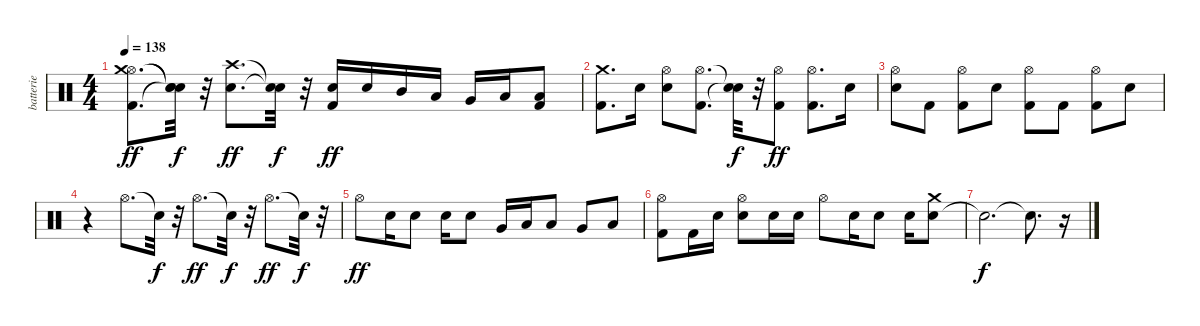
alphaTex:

\track ("batterie" "batterie") {instrument percussion}
\staff {score}
\articulation defaults
\ts (4 4)
\tempo 138
\clef neutral
\ks c
("Kick (hit) 2" "Hi-Hat (open)" "Crash medium (hit)").8{d dy ff} ("Snare (hit)"{t} "Snare (hit)"{t} "Snare (hit)"{t}).32{dy f} r.32 ("Electric Snare (hit)" "Crash high (hit)").8{d dy ff} ("Snare (hit)"{t} "Snare (hit)"{t}).32{dy f} r.32 ("Kick (hit) 2" "Electric Snare (hit)").16{dy ff} "Electric Snare (hit)".16 "Mid Tom (hit)".16 "Low Tom (hit)".16 "Very Low Tom (hit)".16 "Low Floor Tom (hit)".16 ("Kick (hit) 2" "Low Floor Tom (hit)").8 |
("Kick (hit) 2" "Crash medium (hit)").8{d} "Electric Snare (hit)".16 ("Electric Snare (hit)" "Hi-Hat (open)").8 ("Kick (hit) 2" "Hi-Hat (open)").8{d} ("Snare (hit)"{t} "Snare (hit)"{t}).32{dy f} r.32 ("Kick (hit) 2" "Hi-Hat (open)").8{dy ff} ("Kick (hit) 2" "Hi-Hat (open)").8{d} "Electric Snare (hit)".16 |
("Electric Snare (hit)" "Hi-Hat (open)").8 "Kick (hit) 2".8 ("Kick (hit) 2" "Hi-Hat (open)").8 "Electric Snare (hit)".8 ("Kick (hit) 2" "Hi-Hat (open)").8 "Kick (hit) 2".8 ("Kick (hit) 2" "Hi-Hat (open)").8 "Electric Snare (hit)".8 |
r.4 "Hi-Hat (open)".8{d} "Snare (hit)"{t}.32{dy f} r.32 "Hi-Hat (open)".8{d dy ff} "Snare (hit)"{t}.32{dy f} r.32 "Hi-Hat (open)".8{d dy ff} "Snare (hit)"{t}.32{dy f} r.32 |
"Hi-Hat (open)".8{dy ff} "Electric Snare (hit)".16 "Electric Snare (hit)".8 "Electric Snare (hit)".16 "Electric Snare (hit)".8 "Very Low Tom (hit)".16 "Low Floor Tom (hit)".16 "Low Floor Tom (hit)".8 "Very Low Tom (hit)".8 "Low Floor Tom (hit)".8 |
("Kick (hit) 2" "Hi-Hat (open)").8 "Kick (hit) 2".16 "Electric Snare (hit)".16 ("Electric Snare (hit)" "Hi-Hat (open)").8 "Electric Snare (hit)".16 "Electric Snare (hit)".16 "Hi-Hat (open)".8 "Electric Snare (hit)".16 "Electric Snare (hit)".8 "Electric Snare (hit)".16 ("Electric Snare (hit)" "Crash medium (hit)").8 |
"Snare (hit)"{t}.2{d dy f} "Snare (hit)"{t}.8{d} r.16
